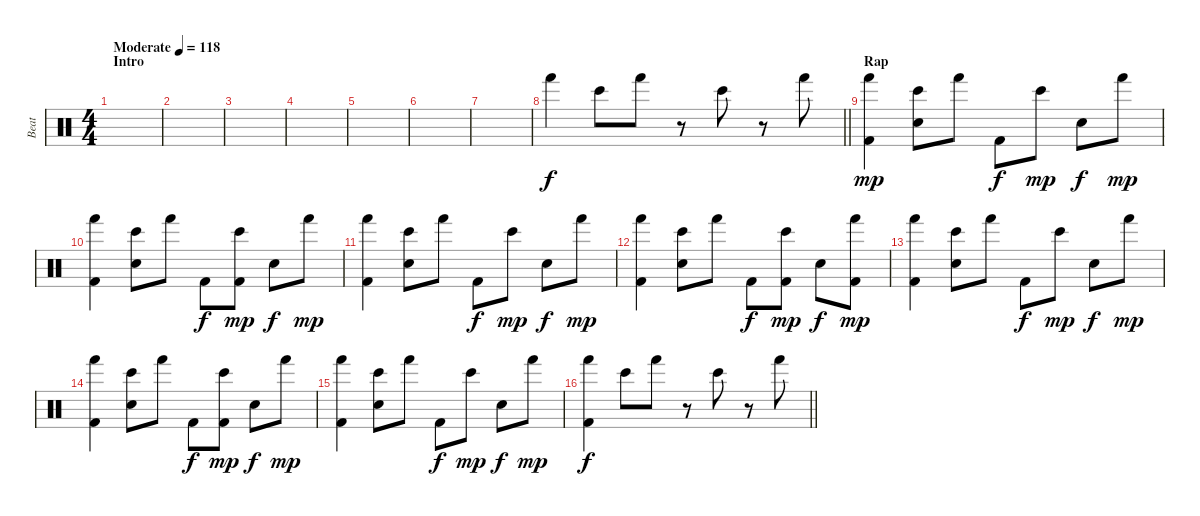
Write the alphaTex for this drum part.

\track ("Beat" "Beat") {instrument percussion}
\staff {score}
\articulation defaults
\ts (4 4)
\section ("" "Intro")
\tempo (118 "Moderate")
\clef neutral
\ks c
|
|
|
|
|
|
|
\barLineRight lightlight "Hand (hit)".4 "Bongo High (hit)".8 "Hand (hit)".8
r.8 "Bongo High (hit)".8 r.8 "Hand (hit)".8 |
\section ("" "Rap")
("Hand (hit)" "Kick (hit) 2").4{dy mp} ("Bongo High (hit)" "Electric Snare (hit)").8 "Hand (hit)".8 "Kick (hit) 2".8{dy f} "Bongo High (hit)".8{dy mp} "Electric Snare (hit)".8{dy f} "Hand (hit)".8{dy mp} |
("Hand (hit)" "Kick (hit) 2").4 ("Bongo High (hit)" "Electric Snare (hit)").8 "Hand (hit)".8 "Kick (hit) 2".8{dy f} ("Bongo High (hit)" "Kick (hit) 2").8{dy mp} "Electric Snare (hit)".8{dy f} "Hand (hit)".8{dy mp} |
("Hand (hit)" "Kick (hit) 2").4 ("Bongo High (hit)" "Electric Snare (hit)").8 "Hand (hit)".8 "Kick (hit) 2".8{dy f} "Bongo High (hit)".8{dy mp} "Electric Snare (hit)".8{dy f} "Hand (hit)".8{dy mp} |
("Hand (hit)" "Kick (hit) 2").4 ("Bongo High (hit)" "Electric Snare (hit)").8 "Hand (hit)".8 "Kick (hit) 2".8{dy f} ("Bongo High (hit)" "Kick (hit) 2").8{dy mp} "Electric Snare (hit)".8{dy f} ("Hand (hit)" "Kick (hit) 2").8{dy mp} |
("Hand (hit)" "Kick (hit) 2").4 ("Bongo High (hit)" "Electric Snare (hit)").8 "Hand (hit)".8 "Kick (hit) 2".8{dy f} "Bongo High (hit)".8{dy mp} "Electric Snare (hit)".8{dy f} "Hand (hit)".8{dy mp} |
("Hand (hit)" "Kick (hit) 2").4 ("Bongo High (hit)" "Electric Snare (hit)").8 "Hand (hit)".8 "Kick (hit) 2".8{dy f} ("Bongo High (hit)" "Kick (hit) 2").8{dy mp} "Electric Snare (hit)".8{dy f} "Hand (hit)".8{dy mp} |
("Hand (hit)" "Kick (hit) 2").4 ("Bongo High (hit)" "Electric Snare (hit)").8 "Hand (hit)".8 "Kick (hit) 2".8{dy f} "Bongo High (hit)".8{dy mp} "Electric Snare (hit)".8{dy f} "Hand (hit)".8{dy mp} |
\barLineRight lightlight
("Hand (hit)" "Kick (hit) 2").4{dy f} "Bongo High (hit)".8 "Hand (hit)".8 r.8 "Bongo High (hit)".8 r.8 "Hand (hit)".8
